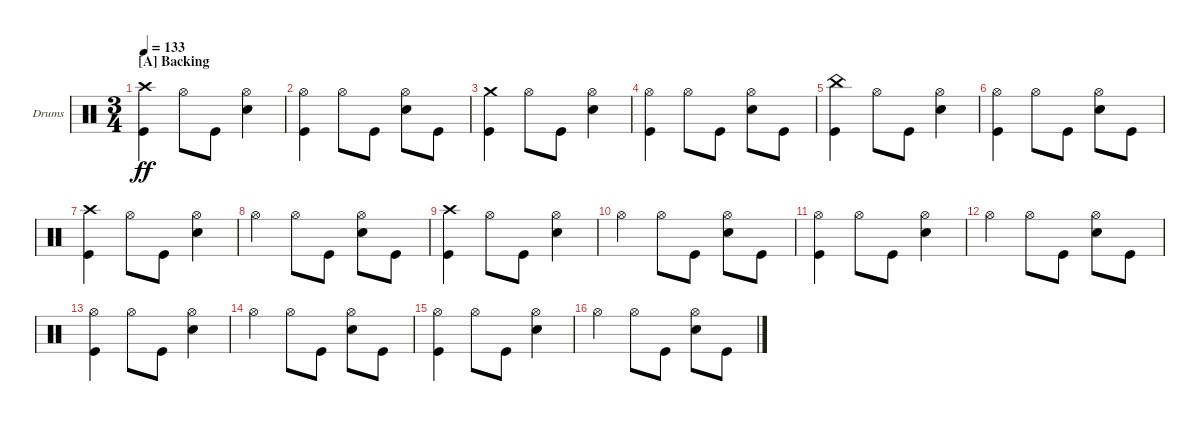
\bracketExtendMode groupsimilarinstruments
\firstSystemTrackNameOrientation horizontal
\otherSystemsTrackNameOrientation horizontal
\track ("Drumkit" "Drums") {instrument percussion}
\staff {score}
\articulation defaults
\ts (3 4)
\section ("A" "Backing")
\tempo 133
\clef neutral
\ks c
("Kick (hit)" "Crash high (hit)").4{dy ff} "Hi-Hat (open)".8 "Kick (hit)".8 ("Snare (hit) 2" "Hi-Hat (open)").4 |
("Kick (hit)" "Hi-Hat (open)").4 "Hi-Hat (open)".8 "Kick (hit)".8 ("Snare (hit) 2" "Hi-Hat (open)").8 "Kick (hit)".8 |
("Kick (hit)" "Crash medium (hit)").4 "Hi-Hat (open)".8 "Kick (hit)".8 ("Snare (hit) 2" "Hi-Hat (open)").4 |
("Kick (hit)" "Hi-Hat (open)").4 "Hi-Hat (open)".8 "Kick (hit)".8 ("Snare (hit) 2" "Hi-Hat (open)").8 "Kick (hit)".8 |
("Kick (hit)" "China (hit)").4 "Hi-Hat (open)".8 "Kick (hit)".8 ("Snare (hit) 2" "Hi-Hat (open)").4 |
("Kick (hit)" "Hi-Hat (open)").4 "Hi-Hat (open)".8 "Kick (hit)".8 ("Snare (hit) 2" "Hi-Hat (open)").8 "Kick (hit)".8 |
("Kick (hit)" "Crash high (hit)").4 "Hi-Hat (open)".8 "Kick (hit)".8 ("Snare (hit) 2" "Hi-Hat (open)").4 |
"Hi-Hat (open)".4 "Hi-Hat (open)".8 "Kick (hit)".8 ("Snare (hit) 2" "Hi-Hat (open)").8 "Kick (hit)".8 |
("Kick (hit)" "Crash high (hit)").4 "Hi-Hat (open)".8 "Kick (hit)".8 ("Snare (hit) 2" "Hi-Hat (open)").4 |
"Hi-Hat (open)".4 "Hi-Hat (open)".8 "Kick (hit)".8 ("Snare (hit) 2" "Hi-Hat (open)").8 "Kick (hit)".8 |
("Kick (hit)" "Hi-Hat (open)").4 "Hi-Hat (open)".8 "Kick (hit)".8 ("Snare (hit) 2" "Hi-Hat (open)").4 |
"Hi-Hat (open)".4 "Hi-Hat (open)".8 "Kick (hit)".8 ("Snare (hit) 2" "Hi-Hat (open)").8 "Kick (hit)".8 |
("Kick (hit)" "Hi-Hat (open)").4 "Hi-Hat (open)".8 "Kick (hit)".8 ("Snare (hit) 2" "Hi-Hat (open)").4 |
"Hi-Hat (open)".4 "Hi-Hat (open)".8 "Kick (hit)".8 ("Snare (hit) 2" "Hi-Hat (open)").8 "Kick (hit)".8 |
("Kick (hit)" "Hi-Hat (open)").4 "Hi-Hat (open)".8 "Kick (hit)".8 ("Snare (hit) 2" "Hi-Hat (open)").4 |
"Hi-Hat (open)".4 "Hi-Hat (open)".8 "Kick (hit)".8 ("Snare (hit) 2" "Hi-Hat (open)").8 "Kick (hit)".8
